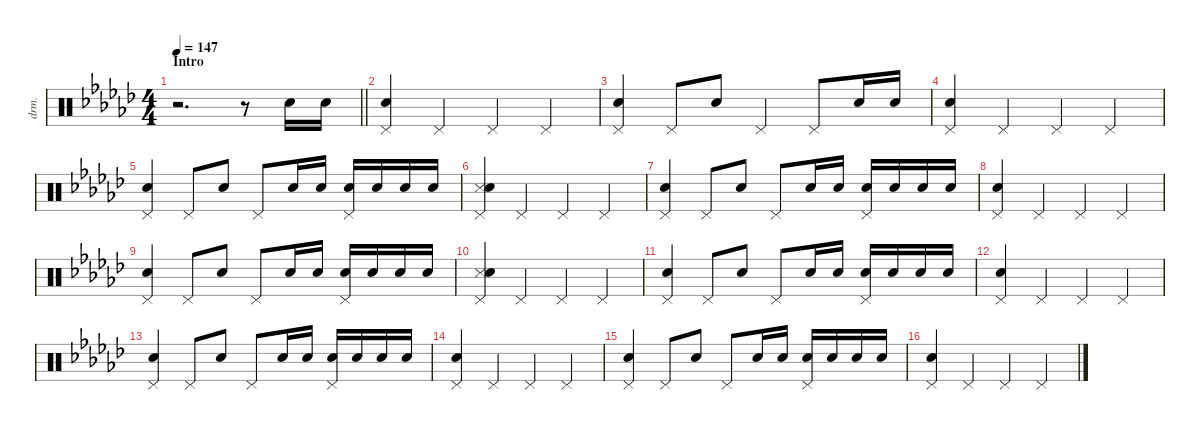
\defaultSystemsLayout 8
\hideDynamics
\bracketExtendMode nobrackets
\otherSystemsTrackNameOrientation horizontal
\track ("Drums" "drm.") {defaultSystemsLayout 4 instrument percussion}
\staff {score}
\articulation defaults
\ts (4 4)
\section ("" "Intro")
\ac
\tempo 147
\clef neutral
\barLineRight lightlight
\ks ebminor
r.2{d dy mf beam Down} r.8{beam Down} "Snare (hit) 2"{acc forcenatural}.16{beam Down} "Snare (hit) 2"{acc forcenatural}.16{beam Down} |
("Pedal Hi-Hat (hit)"{acc forcenatural} "Snare (hit) 2"{acc forcenatural}).4{dy f beam Up} "Pedal Hi-Hat (hit)"{acc forcenatural}.4{beam Up} "Pedal Hi-Hat (hit)"{acc forcenatural}.4{beam Up} "Pedal Hi-Hat (hit)"{acc forcenatural}.4{beam Up} |
("Pedal Hi-Hat (hit)"{acc forcenatural} "Snare (hit) 2"{acc forcenatural}).4{beam Up} "Pedal Hi-Hat (hit)"{acc forcenatural}.8{beam Up} "Snare (hit) 2"{acc forcenatural}.8{dy mf beam Up} "Pedal Hi-Hat (hit)"{acc forcenatural}.4{dy f beam Up} "Pedal Hi-Hat (hit)"{acc forcenatural}.8{beam Up} "Snare (hit) 2"{acc forcenatural}.16{dy mf beam Up} "Snare (hit) 2"{acc forcenatural}.16{beam Up} |
("Pedal Hi-Hat (hit)"{acc forcenatural} "Snare (hit) 2"{acc forcenatural}).4{dy f beam Up} "Pedal Hi-Hat (hit)"{acc forcenatural}.4{beam Up} "Pedal Hi-Hat (hit)"{acc forcenatural}.4{beam Up} "Pedal Hi-Hat (hit)"{acc forcenatural}.4{beam Up} |
("Pedal Hi-Hat (hit)"{acc forcenatural} "Snare (hit) 2"{acc forcenatural}).4{beam Up} "Pedal Hi-Hat (hit)"{acc forcenatural}.8{beam Up} "Snare (hit) 2"{acc forcenatural}.8{dy mf beam Up} "Pedal Hi-Hat (hit)"{acc forcenatural}.8{dy f beam Up} "Snare (hit) 2"{acc forcenatural}.16{dy p beam Up} "Snare (hit) 2"{acc forcenatural}.16{dy mp beam Up} ("Pedal Hi-Hat (hit)"{acc forcenatural} "Snare (hit) 2"{acc forcenatural}).16{dy f beam Up} "Snare (hit) 2"{acc forcenatural}.16{dy mf beam Up} "Snare (hit) 2"{acc forcenatural}.16{dy f beam Up} "Snare (hit) 2"{acc forcenatural}.16{dy ff beam Up} |
("Pedal Hi-Hat (hit)"{acc forcenatural} "Snare (side stick) 3"{acc forcenatural} "Snare (hit) 2"{acc forcenatural}).4{dy f beam Up} "Pedal Hi-Hat (hit)"{acc forcenatural}.4{beam Up} "Pedal Hi-Hat (hit)"{acc forcenatural}.4{beam Up} "Pedal Hi-Hat (hit)"{acc forcenatural}.4{beam Up} |
("Pedal Hi-Hat (hit)"{acc forcenatural} "Snare (hit) 2"{acc forcenatural}).4{beam Up} "Pedal Hi-Hat (hit)"{acc forcenatural}.8{beam Up} "Snare (hit) 2"{acc forcenatural}.8{dy mf beam Up} "Pedal Hi-Hat (hit)"{acc forcenatural}.8{dy f beam Up} "Snare (hit) 2"{acc forcenatural}.16{dy p beam Up} "Snare (hit) 2"{acc forcenatural}.16{dy mp beam Up} ("Pedal Hi-Hat (hit)"{acc forcenatural} "Snare (hit) 2"{acc forcenatural}).16{dy f beam Up} "Snare (hit) 2"{acc forcenatural}.16{dy mf beam Up} "Snare (hit) 2"{acc forcenatural}.16{dy f beam Up} "Snare (hit) 2"{acc forcenatural}.16{dy ff beam Up} |
("Pedal Hi-Hat (hit)"{acc forcenatural} "Snare (hit) 2"{acc forcenatural}).4{dy f beam Up} "Pedal Hi-Hat (hit)"{acc forcenatural}.4{beam Up} "Pedal Hi-Hat (hit)"{acc forcenatural}.4{beam Up} "Pedal Hi-Hat (hit)"{acc forcenatural}.4{beam Up} |
("Pedal Hi-Hat (hit)"{acc forcenatural} "Snare (hit) 2"{acc forcenatural}).4{beam Up} "Pedal Hi-Hat (hit)"{acc forcenatural}.8{beam Up} "Snare (hit) 2"{acc forcenatural}.8{dy mf beam Up} "Pedal Hi-Hat (hit)"{acc forcenatural}.8{dy f beam Up} "Snare (hit) 2"{acc forcenatural}.16{dy p beam Up} "Snare (hit) 2"{acc forcenatural}.16{dy mp beam Up} ("Pedal Hi-Hat (hit)"{acc forcenatural} "Snare (hit) 2"{acc forcenatural}).16{dy f beam Up} "Snare (hit) 2"{acc forcenatural}.16{dy mf beam Up} "Snare (hit) 2"{acc forcenatural}.16{dy f beam Up} "Snare (hit) 2"{acc forcenatural}.16{dy ff beam Up} |
("Pedal Hi-Hat (hit)"{acc forcenatural} "Snare (side stick) 3"{acc forcenatural} "Snare (hit) 2"{acc forcenatural}).4{dy f beam Up} "Pedal Hi-Hat (hit)"{acc forcenatural}.4{beam Up} "Pedal Hi-Hat (hit)"{acc forcenatural}.4{beam Up} "Pedal Hi-Hat (hit)"{acc forcenatural}.4{beam Up} |
("Pedal Hi-Hat (hit)"{acc forcenatural} "Snare (hit) 2"{acc forcenatural}).4{beam Up} "Pedal Hi-Hat (hit)"{acc forcenatural}.8{beam Up} "Snare (hit) 2"{acc forcenatural}.8{dy mf beam Up} "Pedal Hi-Hat (hit)"{acc forcenatural}.8{dy f beam Up} "Snare (hit) 2"{acc forcenatural}.16{dy p beam Up} "Snare (hit) 2"{acc forcenatural}.16{dy mp beam Up} ("Pedal Hi-Hat (hit)"{acc forcenatural} "Snare (hit) 2"{acc forcenatural}).16{dy f beam Up} "Snare (hit) 2"{acc forcenatural}.16{dy mf beam Up} "Snare (hit) 2"{acc forcenatural}.16{dy f beam Up} "Snare (hit) 2"{acc forcenatural}.16{dy ff beam Up} |
("Pedal Hi-Hat (hit)"{acc forcenatural} "Snare (hit) 2"{acc forcenatural}).4{dy f beam Up} "Pedal Hi-Hat (hit)"{acc forcenatural}.4{beam Up} "Pedal Hi-Hat (hit)"{acc forcenatural}.4{beam Up} "Pedal Hi-Hat (hit)"{acc forcenatural}.4{beam Up} |
("Pedal Hi-Hat (hit)"{acc forcenatural} "Snare (hit) 2"{acc forcenatural}).4{beam Up} "Pedal Hi-Hat (hit)"{acc forcenatural}.8{beam Up} "Snare (hit) 2"{acc forcenatural}.8{dy mf beam Up} "Pedal Hi-Hat (hit)"{acc forcenatural}.8{dy f beam Up} "Snare (hit) 2"{acc forcenatural}.16{dy p beam Up} "Snare (hit) 2"{acc forcenatural}.16{dy mp beam Up} ("Pedal Hi-Hat (hit)"{acc forcenatural} "Snare (hit) 2"{acc forcenatural}).16{dy f beam Up} "Snare (hit) 2"{acc forcenatural}.16{dy mf beam Up} "Snare (hit) 2"{acc forcenatural}.16{dy f beam Up} "Snare (hit) 2"{acc forcenatural}.16{dy ff beam Up} |
("Pedal Hi-Hat (hit)"{acc forcenatural} "Snare (hit) 2"{acc forcenatural}).4{dy f beam Up} "Pedal Hi-Hat (hit)"{acc forcenatural}.4{beam Up} "Pedal Hi-Hat (hit)"{acc forcenatural}.4{beam Up} "Pedal Hi-Hat (hit)"{acc forcenatural}.4{beam Up} |
("Pedal Hi-Hat (hit)"{acc forcenatural} "Snare (hit) 2"{acc forcenatural}).4{beam Up} "Pedal Hi-Hat (hit)"{acc forcenatural}.8{beam Up} "Snare (hit) 2"{acc forcenatural}.8{dy mf beam Up} "Pedal Hi-Hat (hit)"{acc forcenatural}.8{dy f beam Up} "Snare (hit) 2"{acc forcenatural}.16{dy p beam Up} "Snare (hit) 2"{acc forcenatural}.16{dy mp beam Up} ("Pedal Hi-Hat (hit)"{acc forcenatural} "Snare (hit) 2"{acc forcenatural}).16{dy f beam Up} "Snare (hit) 2"{acc forcenatural}.16{dy mf beam Up} "Snare (hit) 2"{acc forcenatural}.16{dy f beam Up} "Snare (hit) 2"{acc forcenatural}.16{dy ff beam Up} |
("Pedal Hi-Hat (hit)"{acc forcenatural} "Snare (hit) 2"{acc forcenatural}).4{dy f beam Up} "Pedal Hi-Hat (hit)"{acc forcenatural}.4{beam Up} "Pedal Hi-Hat (hit)"{acc forcenatural}.4{beam Up} "Pedal Hi-Hat (hit)"{acc forcenatural}.4{beam Up}
